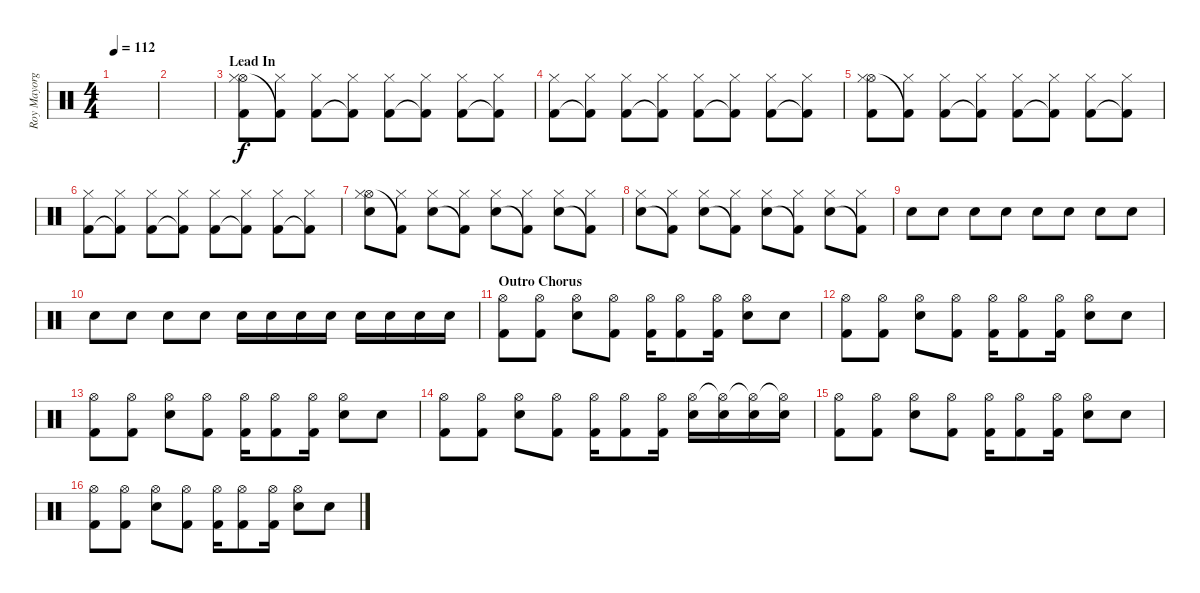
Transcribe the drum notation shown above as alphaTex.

\track ("Roy Mayorga" "Roy Mayorg") {instrument percussion}
\staff {score}
\articulation defaults
\ts (4 4)
\tempo 112
\clef neutral
\ks c
|
|
\section ("" "Lead In")
("Hi-Hat (open)" "Hi-Hat (closed)" "Kick (hit) 2").8{volume 7} ("Hi-Hat (closed)" "Kick (hit) 2"{t}).8 ("Hi-Hat (closed)" "Kick (hit) 2").8 ("Hi-Hat (closed)" "Kick (hit) 2"{t}).8 ("Hi-Hat (closed)" "Kick (hit) 2").8 ("Hi-Hat (closed)" "Kick (hit) 2"{t}).8 ("Hi-Hat (closed)" "Kick (hit) 2").8 ("Hi-Hat (closed)" "Kick (hit) 2"{t}).8 |
("Hi-Hat (closed)" "Kick (hit) 2").8{volume 9} ("Hi-Hat (closed)" "Kick (hit) 2"{t}).8 ("Hi-Hat (closed)" "Kick (hit) 2").8 ("Hi-Hat (closed)" "Kick (hit) 2"{t}).8 ("Hi-Hat (closed)" "Kick (hit) 2").8 ("Hi-Hat (closed)" "Kick (hit) 2"{t}).8 ("Hi-Hat (closed)" "Kick (hit) 2").8 ("Hi-Hat (closed)" "Kick (hit) 2"{t}).8 |
("Hi-Hat (open)" "Hi-Hat (closed)" "Kick (hit) 2").8{volume 10} ("Hi-Hat (closed)" "Kick (hit) 2"{t}).8 ("Hi-Hat (closed)" "Kick (hit) 2").8 ("Hi-Hat (closed)" "Kick (hit) 2"{t}).8 ("Hi-Hat (closed)" "Kick (hit) 2").8 ("Hi-Hat (closed)" "Kick (hit) 2"{t}).8 ("Hi-Hat (closed)" "Kick (hit) 2").8 ("Hi-Hat (closed)" "Kick (hit) 2"{t}).8 |
("Hi-Hat (closed)" "Kick (hit) 2").8{volume 12} ("Hi-Hat (closed)" "Kick (hit) 2"{t}).8 ("Hi-Hat (closed)" "Kick (hit) 2").8 ("Hi-Hat (closed)" "Kick (hit) 2"{t}).8 ("Hi-Hat (closed)" "Kick (hit) 2").8 ("Hi-Hat (closed)" "Kick (hit) 2"{t}).8 ("Hi-Hat (closed)" "Kick (hit) 2").8 ("Hi-Hat (closed)" "Kick (hit) 2"{t}).8 |
("Hi-Hat (open)" "Hi-Hat (closed)" "Snare (hit) 2").8{volume 12} ("Hi-Hat (closed)" "Kick (hit) 2"{t}).8 ("Hi-Hat (closed)" "Snare (hit) 2").8 ("Hi-Hat (closed)" "Kick (hit) 2"{t}).8 ("Hi-Hat (closed)" "Snare (hit) 2").8 ("Hi-Hat (closed)" "Kick (hit) 2"{t}).8 ("Hi-Hat (closed)" "Snare (hit) 2").8 ("Hi-Hat (closed)" "Kick (hit) 2"{t}).8 |
("Hi-Hat (closed)" "Snare (hit) 2").8{volume 12} ("Hi-Hat (closed)" "Kick (hit) 2"{t}).8 ("Hi-Hat (closed)" "Snare (hit) 2").8 ("Hi-Hat (closed)" "Kick (hit) 2"{t}).8 ("Hi-Hat (closed)" "Snare (hit) 2").8 ("Hi-Hat (closed)" "Kick (hit) 2"{t}).8 ("Hi-Hat (closed)" "Snare (hit) 2").8 ("Hi-Hat (closed)" "Kick (hit) 2"{t}).8 |
"Electric Snare (hit)".8{volume 13} "Electric Snare (hit)".8 "Electric Snare (hit)".8 "Electric Snare (hit)".8 "Electric Snare (hit)".8 "Electric Snare (hit)".8 "Electric Snare (hit)".8 "Electric Snare (hit)".8 |
"Electric Snare (hit)".8{volume 15} "Electric Snare (hit)".8 "Electric Snare (hit)".8 "Electric Snare (hit)".8 "Electric Snare (hit)".16 "Electric Snare (hit)".16 "Electric Snare (hit)".16 "Electric Snare (hit)".16 "Electric Snare (hit)".16 "Electric Snare (hit)".16 "Electric Snare (hit)".16 "Electric Snare (hit)".16 |
\section ("" "Outro Chorus")
("Hi-Hat (open)" "Kick (hit) 2").8 ("Hi-Hat (open)" "Kick (hit) 2").8 ("Hi-Hat (open)" "Snare (hit) 2").8 ("Hi-Hat (open)" "Kick (hit) 2").8 ("Hi-Hat (open)" "Kick (hit) 2").16 ("Hi-Hat (open)" "Kick (hit) 2").8 ("Hi-Hat (open)" "Kick (hit) 2").16 ("Hi-Hat (open)" "Snare (hit) 2").8 "Snare (hit) 2".8 |
("Hi-Hat (open)" "Kick (hit) 2").8 ("Hi-Hat (open)" "Kick (hit) 2").8 ("Hi-Hat (open)" "Snare (hit) 2").8 ("Hi-Hat (open)" "Kick (hit) 2").8 ("Hi-Hat (open)" "Kick (hit) 2").16 ("Hi-Hat (open)" "Kick (hit) 2").8 ("Hi-Hat (open)" "Kick (hit) 2").16 ("Hi-Hat (open)" "Snare (hit) 2").8 "Snare (hit) 2".8 |
("Hi-Hat (open)" "Kick (hit) 2").8 ("Hi-Hat (open)" "Kick (hit) 2").8 ("Hi-Hat (open)" "Snare (hit) 2").8 ("Hi-Hat (open)" "Kick (hit) 2").8 ("Hi-Hat (open)" "Kick (hit) 2").16 ("Hi-Hat (open)" "Kick (hit) 2").8 ("Hi-Hat (open)" "Kick (hit) 2").16 ("Hi-Hat (open)" "Snare (hit) 2").8 "Snare (hit) 2".8 |
("Hi-Hat (open)" "Kick (hit) 2").8 ("Hi-Hat (open)" "Kick (hit) 2").8 ("Hi-Hat (open)" "Snare (hit) 2").8 ("Hi-Hat (open)" "Kick (hit) 2").8 ("Hi-Hat (open)" "Kick (hit) 2").16 ("Hi-Hat (open)" "Kick (hit) 2").8 ("Hi-Hat (open)" "Kick (hit) 2").16 ("Hi-Hat (open)" "Snare (hit) 2").16 ("Hi-Hat (open)"{t} "Snare (hit) 2").16 ("Hi-Hat (open)"{t} "Snare (hit) 2").16 ("Hi-Hat (open)"{t} "Snare (hit) 2").16 |
("Hi-Hat (open)" "Kick (hit) 2").8 ("Hi-Hat (open)" "Kick (hit) 2").8 ("Hi-Hat (open)" "Snare (hit) 2").8 ("Hi-Hat (open)" "Kick (hit) 2").8 ("Hi-Hat (open)" "Kick (hit) 2").16 ("Hi-Hat (open)" "Kick (hit) 2").8 ("Hi-Hat (open)" "Kick (hit) 2").16 ("Hi-Hat (open)" "Snare (hit) 2").8 "Snare (hit) 2".8 |
("Hi-Hat (open)" "Kick (hit) 2").8 ("Hi-Hat (open)" "Kick (hit) 2").8 ("Hi-Hat (open)" "Snare (hit) 2").8 ("Hi-Hat (open)" "Kick (hit) 2").8 ("Hi-Hat (open)" "Kick (hit) 2").16 ("Hi-Hat (open)" "Kick (hit) 2").8 ("Hi-Hat (open)" "Kick (hit) 2").16 ("Hi-Hat (open)" "Snare (hit) 2").8 "Snare (hit) 2".8
